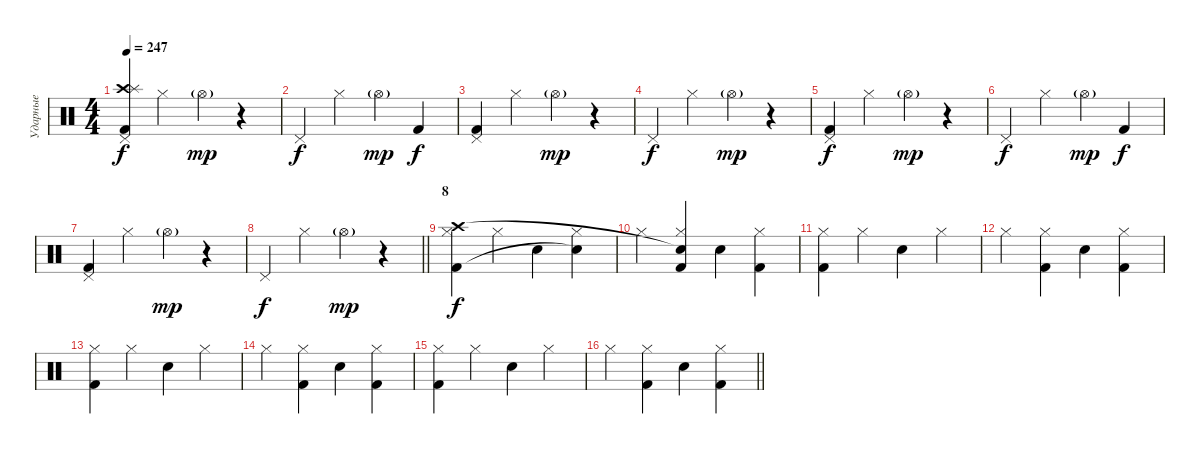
\track ("Ударные" "Ударные") {instrument percussion}
\staff {score}
\articulation defaults
\ts (4 4)
\tempo 247
\clef neutral
\ks c
("Pedal Hi-Hat (hit)" "Crash high (hit)" "Splash (hit)" "Kick (hit) 2").4{dy f} "Hi-Hat (closed)".4 "Hi-Hat (open)"{g}.4{dy mp} r.4 |
"Pedal Hi-Hat (hit)".4{dy f} "Hi-Hat (closed)".4 "Hi-Hat (open)"{g}.4{dy mp} "Kick (hit) 2".4{dy f} |
("Pedal Hi-Hat (hit)" "Kick (hit) 2").4 "Hi-Hat (closed)".4 "Hi-Hat (open)"{g}.4{dy mp} r.4 |
"Pedal Hi-Hat (hit)".4{dy f} "Hi-Hat (closed)".4 "Hi-Hat (open)"{g}.4{dy mp} r.4 |
("Pedal Hi-Hat (hit)" "Kick (hit) 2").4{dy f} "Hi-Hat (closed)".4 "Hi-Hat (open)"{g}.4{dy mp} r.4 |
"Pedal Hi-Hat (hit)".4{dy f} "Hi-Hat (closed)".4 "Hi-Hat (open)"{g}.4{dy mp} "Kick (hit) 2".4{dy f} |
("Pedal Hi-Hat (hit)" "Kick (hit) 2").4 "Hi-Hat (closed)".4 "Hi-Hat (open)"{g}.4{dy mp} r.4 |
\barLineRight lightlight "Pedal Hi-Hat (hit)".4{dy f} "Hi-Hat (closed)".4 "Hi-Hat (open)"{g}.4{dy mp}
r.4 |
\section ("" "8")
("Hi-Hat (closed)" "Kick (hit) 2" "Crash high (hit)").4{dy f} "Hi-Hat (closed)".4 "Snare (hit) 2".4 ("Hi-Hat (closed)" "Snare (hit)"{t}).4 |
"Hi-Hat (closed)".4 ("Hi-Hat (closed)" "Kick (hit) 2" "Snare (hit)"{t}).4 "Snare (hit) 2".4 ("Hi-Hat (closed)" "Kick (hit) 2").4 |
("Hi-Hat (closed)" "Kick (hit) 2").4 "Hi-Hat (closed)".4 "Snare (hit) 2".4 "Hi-Hat (closed)".4 |
"Hi-Hat (closed)".4 ("Hi-Hat (closed)" "Kick (hit) 2").4 "Snare (hit) 2".4 ("Hi-Hat (closed)" "Kick (hit) 2").4 |
("Hi-Hat (closed)" "Kick (hit) 2").4 "Hi-Hat (closed)".4 "Snare (hit) 2".4 "Hi-Hat (closed)".4 |
"Hi-Hat (closed)".4 ("Hi-Hat (closed)" "Kick (hit) 2").4 "Snare (hit) 2".4 ("Hi-Hat (closed)" "Kick (hit) 2").4 |
("Hi-Hat (closed)" "Kick (hit) 2").4 "Hi-Hat (closed)".4 "Snare (hit) 2".4 "Hi-Hat (closed)".4 |
\barLineRight lightlight "Hi-Hat (closed)".4
("Hi-Hat (closed)" "Kick (hit) 2").4 "Snare (hit) 2".4 ("Hi-Hat (closed)" "Kick (hit) 2").4
